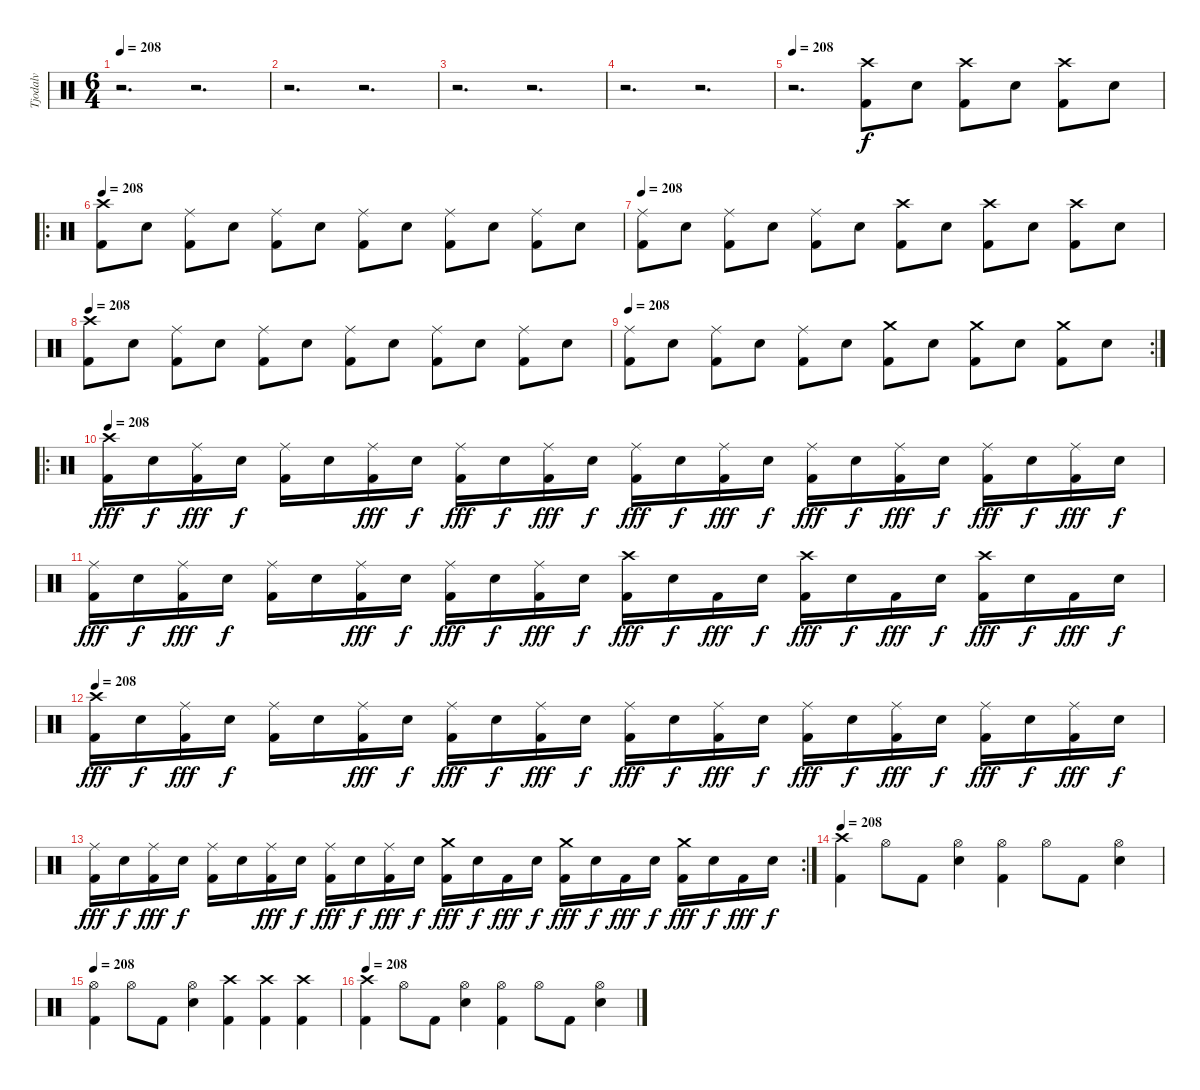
\track ("Tjodalv" "Tjodalv") {instrument percussion}
\staff {score}
\articulation defaults
\ts (6 4)
\tempo 208
\clef neutral
\ks c
r.2{d dy f} r.2{d} |
r.2{d} r.2{d} |
r.2{d} r.2{d} |
r.2{d} r.2{d} |
\tempo 208
r.2{d} ("Kick (hit) 2" "Crash high (hit)").8 "Snare (hit) 2".8 ("Kick (hit) 2" "Crash high (hit)").8 "Snare (hit) 2".8 ("Kick (hit) 2" "Crash high (hit)").8 "Snare (hit) 2".8 |
\ro
\tempo 208
("Kick (hit) 2" "Crash high (hit)").8 "Snare (hit) 2".8 ("Kick (hit) 2" "Ride (middle)").8 "Snare (hit) 2".8 ("Kick (hit) 2" "Ride (middle)").8 "Snare (hit) 2".8 ("Kick (hit) 2" "Ride (middle)").8 "Snare (hit) 2".8 ("Kick (hit) 2" "Ride (middle)").8 "Snare (hit) 2".8 ("Kick (hit) 2" "Ride (middle)").8 "Snare (hit) 2".8 |
\tempo 208
("Kick (hit) 2" "Ride (middle)").8 "Snare (hit) 2".8 ("Kick (hit) 2" "Ride (middle)").8 "Snare (hit) 2".8 ("Kick (hit) 2" "Ride (middle)").8 "Snare (hit) 2".8 ("Kick (hit) 2" "Crash high (hit)").8 "Snare (hit) 2".8 ("Kick (hit) 2" "Crash high (hit)").8 "Snare (hit) 2".8 ("Kick (hit) 2" "Crash high (hit)").8 "Snare (hit) 2".8 |
\tempo 208
("Kick (hit) 2" "Crash high (hit)").8 "Snare (hit) 2".8 ("Kick (hit) 2" "Ride (middle)").8 "Snare (hit) 2".8 ("Kick (hit) 2" "Ride (middle)").8 "Snare (hit) 2".8 ("Kick (hit) 2" "Ride (middle)").8 "Snare (hit) 2".8 ("Kick (hit) 2" "Ride (middle)").8 "Snare (hit) 2".8 ("Kick (hit) 2" "Ride (middle)").8 "Snare (hit) 2".8 |
\rc 2
\tempo 208
("Kick (hit) 2" "Ride (middle)").8 "Snare (hit) 2".8 ("Kick (hit) 2" "Ride (middle)").8 "Snare (hit) 2".8 ("Kick (hit) 2" "Ride (middle)").8 "Snare (hit) 2".8 ("Kick (hit) 2" "Crash medium (hit)").8 "Snare (hit) 2".8 ("Kick (hit) 2" "Crash medium (hit)").8 "Snare (hit) 2".8 ("Kick (hit) 2" "Crash medium (hit)").8 "Snare (hit) 2".8 |
\ro
\tempo 208
("Kick (hit) 2" "Crash high (hit)").16{dy fff} "Snare (hit) 2".16{dy f} ("Kick (hit) 2" "Ride (middle)").16{dy fff} "Snare (hit) 2".16{dy f} ("Kick (hit) 2" "Ride (middle)").16 "Snare (hit) 2".16 ("Kick (hit) 2" "Ride (middle)").16{dy fff} "Snare (hit) 2".16{dy f} ("Kick (hit) 2" "Ride (middle)").16{dy fff} "Snare (hit) 2".16{dy f} ("Kick (hit) 2" "Ride (middle)").16{dy fff} "Snare (hit) 2".16{dy f} ("Kick (hit) 2" "Ride (middle)").16{dy fff} "Snare (hit) 2".16{dy f} ("Kick (hit) 2" "Ride (middle)").16{dy fff} "Snare (hit) 2".16{dy f} ("Kick (hit) 2" "Ride (middle)").16{dy fff} "Snare (hit) 2".16{dy f} ("Kick (hit) 2" "Ride (middle)").16{dy fff} "Snare (hit) 2".16{dy f} ("Kick (hit) 2" "Ride (middle)").16{dy fff} "Snare (hit) 2".16{dy f} ("Kick (hit) 2" "Ride (middle)").16{dy fff} "Snare (hit) 2".16{dy f} |
("Kick (hit) 2" "Ride (middle)").16{dy fff} "Snare (hit) 2".16{dy f} ("Kick (hit) 2" "Ride (middle)").16{dy fff} "Snare (hit) 2".16{dy f} ("Kick (hit) 2" "Ride (middle)").16 "Snare (hit) 2".16 ("Kick (hit) 2" "Ride (middle)").16{dy fff} "Snare (hit) 2".16{dy f} ("Kick (hit) 2" "Ride (middle)").16{dy fff} "Snare (hit) 2".16{dy f} ("Kick (hit) 2" "Ride (middle)").16{dy fff} "Snare (hit) 2".16{dy f} ("Kick (hit) 2" "Crash high (hit)").16{dy fff} "Snare (hit) 2".16{dy f} "Kick (hit) 2".16{dy fff} "Snare (hit) 2".16{dy f} ("Kick (hit) 2" "Crash high (hit)").16{dy fff} "Snare (hit) 2".16{dy f} "Kick (hit) 2".16{dy fff} "Snare (hit) 2".16{dy f} ("Kick (hit) 2" "Crash high (hit)").16{dy fff} "Snare (hit) 2".16{dy f} "Kick (hit) 2".16{dy fff} "Snare (hit) 2".16{dy f} |
\tempo 208
("Kick (hit) 2" "Crash high (hit)").16{dy fff} "Snare (hit) 2".16{dy f} ("Kick (hit) 2" "Ride (middle)").16{dy fff} "Snare (hit) 2".16{dy f} ("Kick (hit) 2" "Ride (middle)").16 "Snare (hit) 2".16 ("Kick (hit) 2" "Ride (middle)").16{dy fff} "Snare (hit) 2".16{dy f} ("Kick (hit) 2" "Ride (middle)").16{dy fff} "Snare (hit) 2".16{dy f} ("Kick (hit) 2" "Ride (middle)").16{dy fff} "Snare (hit) 2".16{dy f} ("Kick (hit) 2" "Ride (middle)").16{dy fff} "Snare (hit) 2".16{dy f} ("Kick (hit) 2" "Ride (middle)").16{dy fff} "Snare (hit) 2".16{dy f} ("Kick (hit) 2" "Ride (middle)").16{dy fff} "Snare (hit) 2".16{dy f} ("Kick (hit) 2" "Ride (middle)").16{dy fff} "Snare (hit) 2".16{dy f} ("Kick (hit) 2" "Ride (middle)").16{dy fff} "Snare (hit) 2".16{dy f} ("Kick (hit) 2" "Ride (middle)").16{dy fff} "Snare (hit) 2".16{dy f} |
\rc 2
("Kick (hit) 2" "Ride (middle)").16{dy fff} "Snare (hit) 2".16{dy f} ("Kick (hit) 2" "Ride (middle)").16{dy fff} "Snare (hit) 2".16{dy f} ("Kick (hit) 2" "Ride (middle)").16 "Snare (hit) 2".16 ("Kick (hit) 2" "Ride (middle)").16{dy fff} "Snare (hit) 2".16{dy f} ("Kick (hit) 2" "Ride (middle)").16{dy fff} "Snare (hit) 2".16{dy f} ("Kick (hit) 2" "Ride (middle)").16{dy fff} "Snare (hit) 2".16{dy f} ("Kick (hit) 2" "Crash medium (hit)").16{dy fff} "Snare (hit) 2".16{dy f} "Kick (hit) 2".16{dy fff} "Snare (hit) 2".16{dy f} ("Kick (hit) 2" "Crash medium (hit)").16{dy fff} "Snare (hit) 2".16{dy f} "Kick (hit) 2".16{dy fff} "Snare (hit) 2".16{dy f} ("Kick (hit) 2" "Crash medium (hit)").16{dy fff} "Snare (hit) 2".16{dy f} "Kick (hit) 2".16{dy fff} "Snare (hit) 2".16{dy f} |
\tempo 208
("Kick (hit) 2" "Crash high (hit)").4 "Hi-Hat (open)".8 "Kick (hit) 2".8 ("Snare (hit) 2" "Hi-Hat (open)").4 ("Kick (hit) 2" "Hi-Hat (open)").4 "Hi-Hat (open)".8 "Kick (hit) 2".8 ("Snare (hit) 2" "Hi-Hat (open)").4 |
\tempo 208
("Kick (hit) 2" "Hi-Hat (open)").4 "Hi-Hat (open)".8 "Kick (hit) 2".8 ("Snare (hit) 2" "Hi-Hat (open)").4 ("Kick (hit) 2" "Crash high (hit)").4 ("Kick (hit) 2" "Crash high (hit)").4 ("Kick (hit) 2" "Crash high (hit)").4 |
\tempo 208
("Kick (hit) 2" "Crash high (hit)").4 "Hi-Hat (open)".8 "Kick (hit) 2".8 ("Snare (hit) 2" "Hi-Hat (open)").4 ("Kick (hit) 2" "Hi-Hat (open)").4 "Hi-Hat (open)".8 "Kick (hit) 2".8 ("Snare (hit) 2" "Hi-Hat (open)").4
